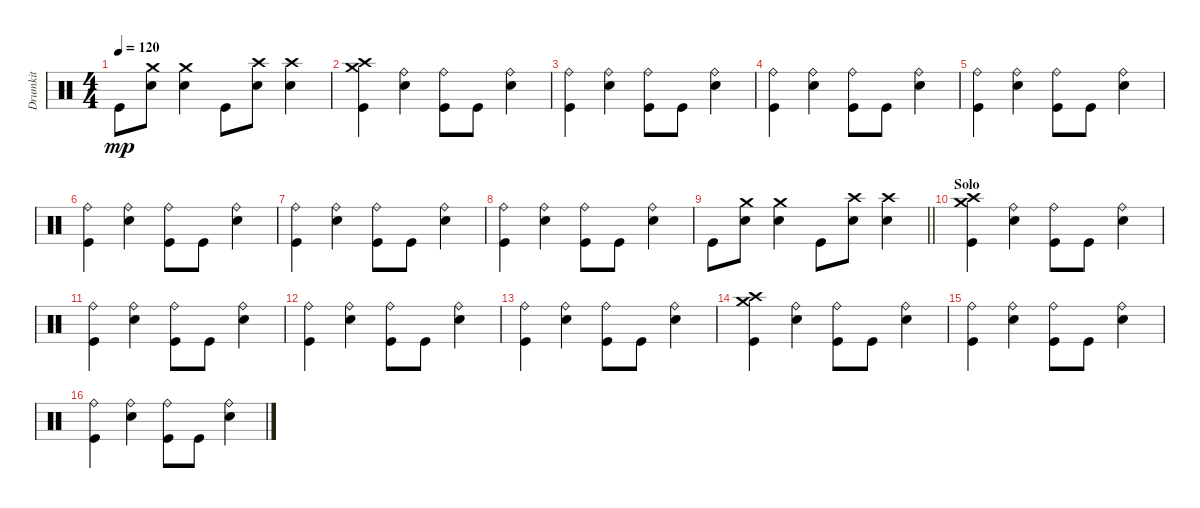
\track ("Drumkit" "Drumkit") {instrument percussion}
\staff {score}
\articulation defaults
\ts (4 4)
\tempo 120
\clef neutral
\ks c "Kick (hit)".8{dy mp}
("Snare (hit) 2" "Crash medium (hit)").8 ("Snare (hit) 2" "Crash medium (hit)").4 "Kick (hit)".8 ("Snare (hit) 2" "Crash high (hit)").8 ("Snare (hit) 2" "Crash high (hit)").4 |
("Kick (hit)" "Crash high (hit)" "Crash medium (hit)").4 ("Snare (hit) 2" "Ride (bell)").4 ("Kick (hit)" "Ride (bell)").8 "Kick (hit)".8 ("Snare (hit) 2" "Ride (bell)").4 |
("Kick (hit)" "Ride (bell)").4 ("Snare (hit) 2" "Ride (bell)").4 ("Kick (hit)" "Ride (bell)").8 "Kick (hit)".8 ("Snare (hit) 2" "Ride (bell)").4 |
("Kick (hit)" "Ride (bell)").4 ("Snare (hit) 2" "Ride (bell)").4 ("Kick (hit)" "Ride (bell)").8 "Kick (hit)".8 ("Snare (hit) 2" "Ride (bell)").4 |
("Kick (hit)" "Ride (bell)").4 ("Snare (hit) 2" "Ride (bell)").4 ("Kick (hit)" "Ride (bell)").8 "Kick (hit)".8 ("Snare (hit) 2" "Ride (bell)").4 |
("Kick (hit)" "Ride (bell)").4 ("Snare (hit) 2" "Ride (bell)").4 ("Kick (hit)" "Ride (bell)").8 "Kick (hit)".8 ("Snare (hit) 2" "Ride (bell)").4 |
("Kick (hit)" "Ride (bell)").4 ("Snare (hit) 2" "Ride (bell)").4 ("Kick (hit)" "Ride (bell)").8 "Kick (hit)".8 ("Snare (hit) 2" "Ride (bell)").4 |
("Kick (hit)" "Ride (bell)").4 ("Snare (hit) 2" "Ride (bell)").4 ("Kick (hit)" "Ride (bell)").8 "Kick (hit)".8 ("Snare (hit) 2" "Ride (bell)").4 |
\barLineRight lightlight "Kick (hit)".8
("Snare (hit) 2" "Crash medium (hit)").8 ("Snare (hit) 2" "Crash medium (hit)").4 "Kick (hit)".8 ("Snare (hit) 2" "Crash high (hit)").8 ("Snare (hit) 2" "Crash high (hit)").4 |
\section ("" "Solo")
("Kick (hit)" "Crash high (hit)" "Crash medium (hit)").4 ("Snare (hit) 2" "Ride (bell)").4 ("Kick (hit)" "Ride (bell)").8 "Kick (hit)".8 ("Snare (hit) 2" "Ride (bell)").4 |
("Kick (hit)" "Ride (bell)").4 ("Snare (hit) 2" "Ride (bell)").4 ("Kick (hit)" "Ride (bell)").8 "Kick (hit)".8 ("Snare (hit) 2" "Ride (bell)").4 |
("Kick (hit)" "Ride (bell)").4 ("Snare (hit) 2" "Ride (bell)").4 ("Kick (hit)" "Ride (bell)").8 "Kick (hit)".8 ("Snare (hit) 2" "Ride (bell)").4 |
("Kick (hit)" "Ride (bell)").4 ("Snare (hit) 2" "Ride (bell)").4 ("Kick (hit)" "Ride (bell)").8 "Kick (hit)".8 ("Snare (hit) 2" "Ride (bell)").4 |
("Kick (hit)" "Crash high (hit)" "Crash medium (hit)").4 ("Snare (hit) 2" "Ride (bell)").4 ("Kick (hit)" "Ride (bell)").8 "Kick (hit)".8 ("Snare (hit) 2" "Ride (bell)").4 |
("Kick (hit)" "Ride (bell)").4 ("Snare (hit) 2" "Ride (bell)").4 ("Kick (hit)" "Ride (bell)").8 "Kick (hit)".8 ("Snare (hit) 2" "Ride (bell)").4 |
("Kick (hit)" "Ride (bell)").4 ("Snare (hit) 2" "Ride (bell)").4 ("Kick (hit)" "Ride (bell)").8 "Kick (hit)".8 ("Snare (hit) 2" "Ride (bell)").4
